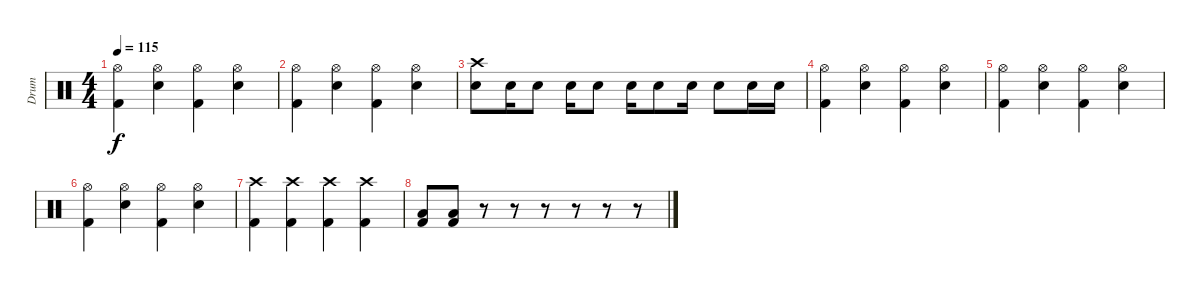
\track ("Drum" "Drum") {instrument percussion}
\staff {score}
\articulation defaults
\ts (4 4)
\tempo 115
\clef neutral
\ks c
("Kick (hit) 2" "Hi-Hat (open)").4{dy f} ("Snare (hit) 2" "Hi-Hat (open)").4 ("Kick (hit) 2" "Hi-Hat (open)").4 ("Snare (hit) 2" "Hi-Hat (open)").4 |
("Kick (hit) 2" "Hi-Hat (open)").4 ("Snare (hit) 2" "Hi-Hat (open)").4 ("Kick (hit) 2" "Hi-Hat (open)").4 ("Snare (hit) 2" "Hi-Hat (open)").4 |
("Snare (hit) 2" "Crash high (hit)").8 "Snare (hit) 2".16 "Snare (hit) 2".8 "Snare (hit) 2".16 "Snare (hit) 2".8 "Snare (hit) 2".16 "Snare (hit) 2".8 "Snare (hit) 2".16 "Snare (hit) 2".8 "Snare (hit) 2".16 "Snare (hit) 2".16 |
("Kick (hit) 2" "Hi-Hat (open)").4 ("Snare (hit) 2" "Hi-Hat (open)").4 ("Kick (hit) 2" "Hi-Hat (open)").4 ("Snare (hit) 2" "Hi-Hat (open)").4 |
("Kick (hit) 2" "Hi-Hat (open)").4 ("Snare (hit) 2" "Hi-Hat (open)").4 ("Kick (hit) 2" "Hi-Hat (open)").4 ("Snare (hit) 2" "Hi-Hat (open)").4 |
("Kick (hit) 2" "Hi-Hat (open)").4 ("Snare (hit) 2" "Hi-Hat (open)").4 ("Kick (hit) 2" "Hi-Hat (open)").4 ("Snare (hit) 2" "Hi-Hat (open)").4 |
("Kick (hit) 2" "Crash high (hit)").4 ("Kick (hit) 2" "Crash high (hit)").4 ("Kick (hit) 2" "Crash high (hit)").4 ("Kick (hit) 2" "Crash high (hit)").4 |
("Kick (hit) 2" "Low Floor Tom (hit)").8 ("Kick (hit) 2" "Low Floor Tom (hit)").8 r.8 r.8 r.8 r.8 r.8 r.8
